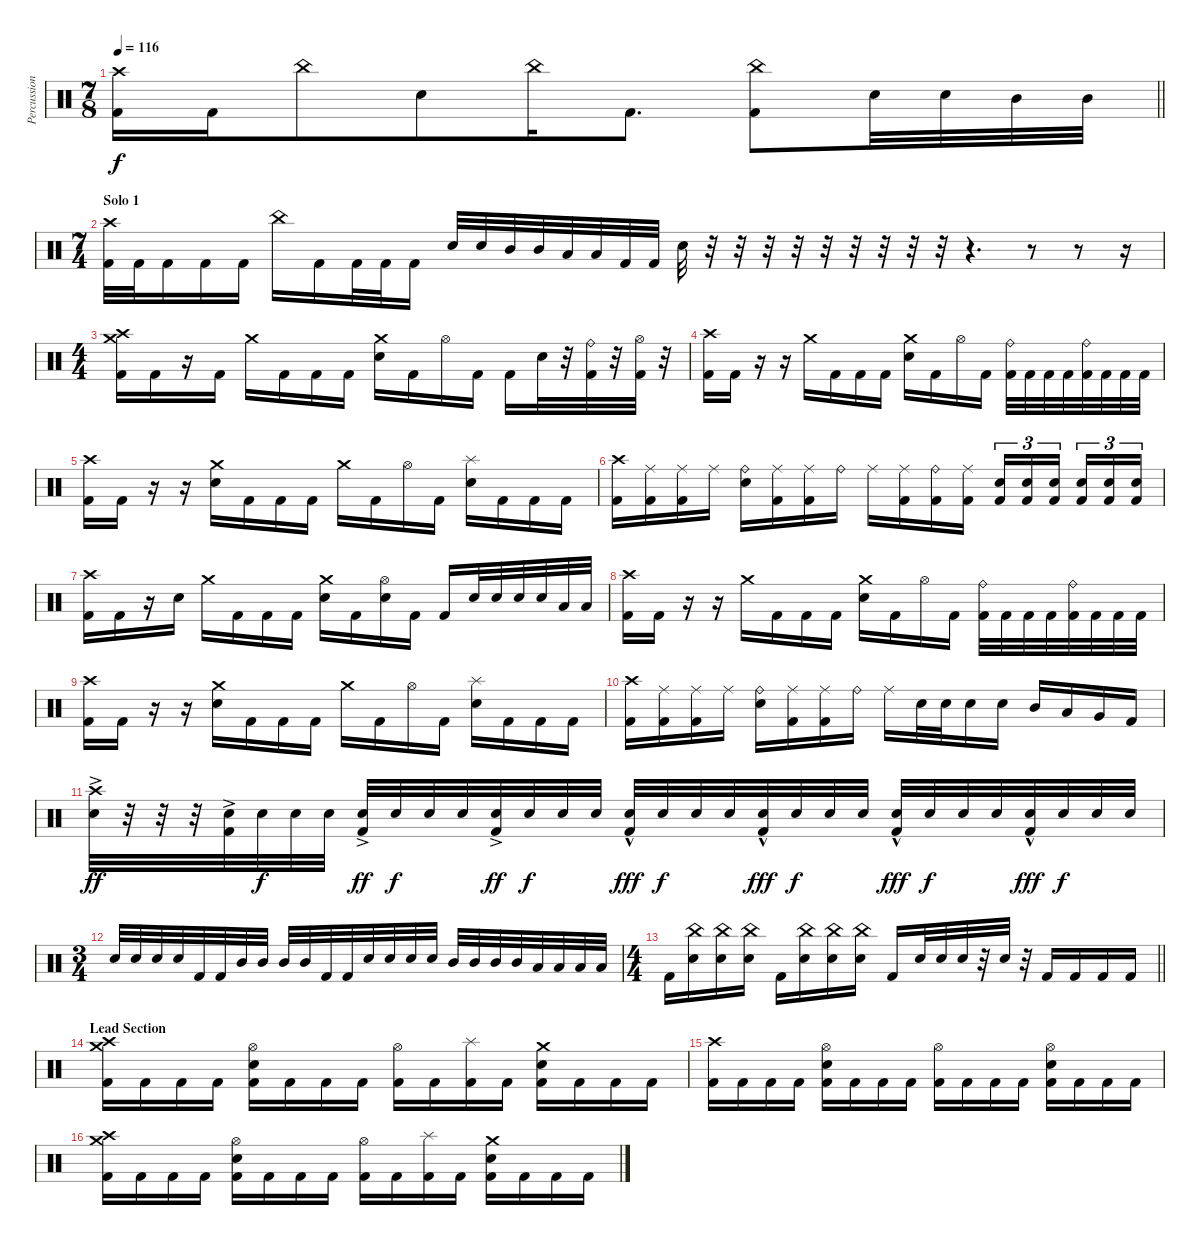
\track ("Percussion" "Percussion") {instrument percussion}
\staff {score}
\articulation defaults
\ts (7 8)
\tempo 116
\clef neutral
\barLineRight lightlight
\ks c
("Crash high (hit)" "Kick (hit) 2").16{dy f} "Kick (hit) 2".16 "China (hit)".8 "Electric Snare (hit)".8 "China (hit)".16 "Kick (hit) 2".8{d} ("China (hit)" "Kick (hit) 2").8 "Electric Snare (hit)".32 "Electric Snare (hit)".32 "Mid Tom (hit)".32 "Mid Tom (hit)".32 |
\ts (7 4)
\section ("" "Solo 1")
("Crash high (hit)" "Kick (hit) 2").32 "Kick (hit) 2".32 "Kick (hit) 2".16 "Kick (hit) 2".16 "Kick (hit) 2".16 "China (hit)".16 "Kick (hit) 2".16 "Kick (hit) 2".32 "Kick (hit) 2".32 "Kick (hit) 2".16 "Electric Snare (hit)".32 "Electric Snare (hit)".32 "Mid Tom (hit)".32 "Mid Tom (hit)".32 "Low Tom (hit)".32 "Low Tom (hit)".32 "Kick (hit) 2".32 "Kick (hit) 2".32 "Electric Snare (hit)".32 r.32 r.32 r.32 r.32 r.32 r.32 r.32 r.32 r.32 r.4{d} r.8 r.8 r.16 |
\ts (4 4)
("Crash high (hit)" "Crash medium (hit)" "Kick (hit) 2").16 "Kick (hit) 2".16 r.16 "Kick (hit) 2".16 "Crash medium (hit)".16 "Kick (hit) 2".16 "Kick (hit) 2".16 "Kick (hit) 2".16 ("Crash medium (hit)" "Electric Snare (hit)").16 "Kick (hit) 2".16 "Hi-Hat (open)".16 "Kick (hit) 2".16 "Kick (hit) 2".16 "Electric Snare (hit)".32 r.32 ("Ride (bell)" "Kick (hit) 2").32 r.32 ("Hi-Hat (open)" "Kick (hit) 2").32 r.32 |
("Crash high (hit)" "Kick (hit) 2").16 "Kick (hit) 2".16 r.16 r.16 "Crash medium (hit)".16 "Kick (hit) 2".16 "Kick (hit) 2".16 "Kick (hit) 2".16 ("Crash medium (hit)" "Electric Snare (hit)").16 "Kick (hit) 2".16 "Hi-Hat (open)".16 "Kick (hit) 2".16 ("Ride (bell)" "Kick (hit) 2").32 "Kick (hit) 2".32 "Kick (hit) 2".32 "Kick (hit) 2".32 ("Ride (bell)" "Kick (hit) 2").32 "Kick (hit) 2".32 "Kick (hit) 2".32 "Kick (hit) 2".32 |
("Crash high (hit)" "Kick (hit) 2").16 "Kick (hit) 2".16 r.16 r.16 ("Crash medium (hit)" "Electric Snare (hit)").16 "Kick (hit) 2".16 "Kick (hit) 2".16 "Kick (hit) 2".16 "Crash medium (hit)".16 "Kick (hit) 2".16 "Hi-Hat (open)".16 "Kick (hit) 2".16 ("Splash (hit)" "Electric Snare (hit)").16 "Kick (hit) 2".16 "Kick (hit) 2".16 "Kick (hit) 2".16 |
("Crash high (hit)" "Kick (hit) 2").16 ("Ride (middle)" "Kick (hit) 2").16 ("Ride (middle)" "Kick (hit) 2").16 "Ride (middle)".16 ("Ride (bell)" "Electric Snare (hit)").16 ("Ride (middle)" "Kick (hit) 2").16 ("Ride (middle)" "Kick (hit) 2").16 "Ride (bell)".16 "Ride (middle)".16 ("Ride (middle)" "Kick (hit) 2").16 ("Ride (bell)" "Kick (hit) 2").16 ("Ride (middle)" "Kick (hit) 2").16 ("Electric Snare (hit)" "Kick (hit) 2").16{tu (3 2)} ("Electric Snare (hit)" "Kick (hit) 2").16{tu (3 2)} ("Electric Snare (hit)" "Kick (hit) 2").16{tu (3 2) beam splitsecondary} ("Electric Snare (hit)" "Kick (hit) 2").16{tu (3 2)} ("Electric Snare (hit)" "Kick (hit) 2").16{tu (3 2)} ("Electric Snare (hit)" "Kick (hit) 2").16{tu (3 2)} |
("Crash high (hit)" "Kick (hit) 2").16 "Kick (hit) 2".16 r.16 "Electric Snare (hit)".16 "Crash medium (hit)".16 "Kick (hit) 2".16 "Kick (hit) 2".16 "Kick (hit) 2".16 ("Crash medium (hit)" "Electric Snare (hit)").16 "Kick (hit) 2".16 ("Hi-Hat (open)" "Electric Snare (hit)").16 "Kick (hit) 2".16 "Kick (hit) 2".16 "Electric Snare (hit)".32 "Electric Snare (hit)".32 "Electric Snare (hit)".32 "Electric Snare (hit)".32 "Low Tom (hit)".32 "Low Tom (hit)".32 |
("Crash high (hit)" "Kick (hit) 2").16 "Kick (hit) 2".16 r.16 r.16 "Crash medium (hit)".16 "Kick (hit) 2".16 "Kick (hit) 2".16 "Kick (hit) 2".16 ("Crash medium (hit)" "Electric Snare (hit)").16 "Kick (hit) 2".16 "Hi-Hat (open)".16 "Kick (hit) 2".16 ("Ride (bell)" "Kick (hit) 2").32 "Kick (hit) 2".32 "Kick (hit) 2".32 "Kick (hit) 2".32 ("Ride (bell)" "Kick (hit) 2").32 "Kick (hit) 2".32 "Kick (hit) 2".32 "Kick (hit) 2".32 |
("Crash high (hit)" "Kick (hit) 2").16 "Kick (hit) 2".16 r.16 r.16 ("Crash medium (hit)" "Electric Snare (hit)").16 "Kick (hit) 2".16 "Kick (hit) 2".16 "Kick (hit) 2".16 "Crash medium (hit)".16 "Kick (hit) 2".16 "Hi-Hat (open)".16 "Kick (hit) 2".16 ("Splash (hit)" "Electric Snare (hit)").16 "Kick (hit) 2".16 "Kick (hit) 2".16 "Kick (hit) 2".16 |
("Crash high (hit)" "Kick (hit) 2").16 ("Ride (middle)" "Kick (hit) 2").16 ("Ride (middle)" "Kick (hit) 2").16 "Ride (middle)".16 ("Ride (bell)" "Electric Snare (hit)").16 ("Ride (middle)" "Kick (hit) 2").16 ("Ride (middle)" "Kick (hit) 2").16 "Ride (bell)".16 "Ride (middle)".16 "Electric Snare (hit)".32 "Electric Snare (hit)".32 "Electric Snare (hit)".16 "Electric Snare (hit)".16 "Mid Tom (hit)".16 "Low Tom (hit)".16 "Very Low Tom (hit)".16 "Kick (hit) 2".16 |
("Crash high (hit)" "Electric Snare (hit)"{ac}).32{dy ff} r.32 r.32 r.32 ("Electric Snare (hit)"{ac} "Kick (hit) 2"{ac}).32 "Electric Snare (hit)".32{dy f} "Electric Snare (hit)".32 "Electric Snare (hit)".32 ("Electric Snare (hit)"{ac} "Kick (hit) 2").32{dy ff} "Electric Snare (hit)".32{dy f} "Electric Snare (hit)".32 "Electric Snare (hit)".32 ("Electric Snare (hit)"{ac} "Kick (hit) 2").32{dy ff} "Electric Snare (hit)".32{dy f} "Electric Snare (hit)".32 "Electric Snare (hit)".32 ("Electric Snare (hit)"{hac} "Kick (hit) 2").32{dy fff} "Electric Snare (hit)".32{dy f} "Electric Snare (hit)".32 "Electric Snare (hit)".32 ("Electric Snare (hit)"{hac} "Kick (hit) 2").32{dy fff} "Electric Snare (hit)".32{dy f} "Electric Snare (hit)".32 "Electric Snare (hit)".32 ("Electric Snare (hit)"{hac} "Kick (hit) 2").32{dy fff} "Electric Snare (hit)".32{dy f} "Electric Snare (hit)".32 "Electric Snare (hit)".32 ("Electric Snare (hit)"{hac} "Kick (hit) 2").32{dy fff} "Electric Snare (hit)".32{dy f} "Electric Snare (hit)".32 "Electric Snare (hit)".32 |
\ts (3 4)
"Electric Snare (hit)".32 "Electric Snare (hit)".32 "Electric Snare (hit)".32 "Electric Snare (hit)".32 "Kick (hit) 2".32 "Kick (hit) 2".32 "Mid Tom (hit)".32 "Mid Tom (hit)".32 "Mid Tom (hit)".32 "Mid Tom (hit)".32 "Kick (hit) 2".32 "Kick (hit) 2".32 "Electric Snare (hit)".32 "Electric Snare (hit)".32 "Electric Snare (hit)".32 "Electric Snare (hit)".32 "Mid Tom (hit)".32 "Mid Tom (hit)".32 "Mid Tom (hit)".32 "Mid Tom (hit)".32 "Low Tom (hit)".32 "Low Tom (hit)".32 "Low Tom (hit)".32 "Low Tom (hit)".32 |
\ts (4 4)
\barLineRight lightlight "Kick (hit) 2".16
("China (hit)" "Electric Snare (hit)").16 ("China (hit)" "Electric Snare (hit)").16 ("China (hit)" "Electric Snare (hit)").16 "Kick (hit) 2".16 ("China (hit)" "Electric Snare (hit)").16 ("China (hit)" "Electric Snare (hit)").16 ("China (hit)" "Electric Snare (hit)").16 "Kick (hit) 2".16 "Electric Snare (hit)".32 "Electric Snare (hit)".32 "Electric Snare (hit)".32 r.32 "Electric Snare (hit)".32 r.32 "Kick (hit) 2".16 "Kick (hit) 2".16 "Kick (hit) 2".16 "Kick (hit) 2".16 |
\section ("" "Lead Section")
("Crash high (hit)" "Crash medium (hit)" "Kick (hit) 2").16 "Kick (hit) 2".16 "Kick (hit) 2".16 "Kick (hit) 2".16 ("Hi-Hat (open)" "Electric Snare (hit)" "Kick (hit) 2").16 "Kick (hit) 2".16 "Kick (hit) 2".16 "Kick (hit) 2".16 ("Hi-Hat (open)" "Kick (hit) 2").16 "Kick (hit) 2".16 ("Splash (hit)" "Kick (hit) 2").16 "Kick (hit) 2".16 ("Crash medium (hit)" "Electric Snare (hit)" "Kick (hit) 2").16 "Kick (hit) 2".16 "Kick (hit) 2".16 "Kick (hit) 2".16 |
("Crash high (hit)" "Kick (hit) 2").16 "Kick (hit) 2".16 "Kick (hit) 2".16 "Kick (hit) 2".16 ("Hi-Hat (open)" "Electric Snare (hit)" "Kick (hit) 2").16 "Kick (hit) 2".16 "Kick (hit) 2".16 "Kick (hit) 2".16 ("Hi-Hat (open)" "Kick (hit) 2").16 "Kick (hit) 2".16 "Kick (hit) 2".16 "Kick (hit) 2".16 ("Hi-Hat (open)" "Electric Snare (hit)" "Kick (hit) 2").16 "Kick (hit) 2".16 "Kick (hit) 2".16 "Kick (hit) 2".16 |
("Crash high (hit)" "Crash medium (hit)" "Kick (hit) 2").16 "Kick (hit) 2".16 "Kick (hit) 2".16 "Kick (hit) 2".16 ("Hi-Hat (open)" "Electric Snare (hit)" "Kick (hit) 2").16 "Kick (hit) 2".16 "Kick (hit) 2".16 "Kick (hit) 2".16 ("Hi-Hat (open)" "Kick (hit) 2").16 "Kick (hit) 2".16 ("Splash (hit)" "Kick (hit) 2").16 "Kick (hit) 2".16 ("Crash medium (hit)" "Electric Snare (hit)" "Kick (hit) 2").16 "Kick (hit) 2".16 "Kick (hit) 2".16 "Kick (hit) 2".16
